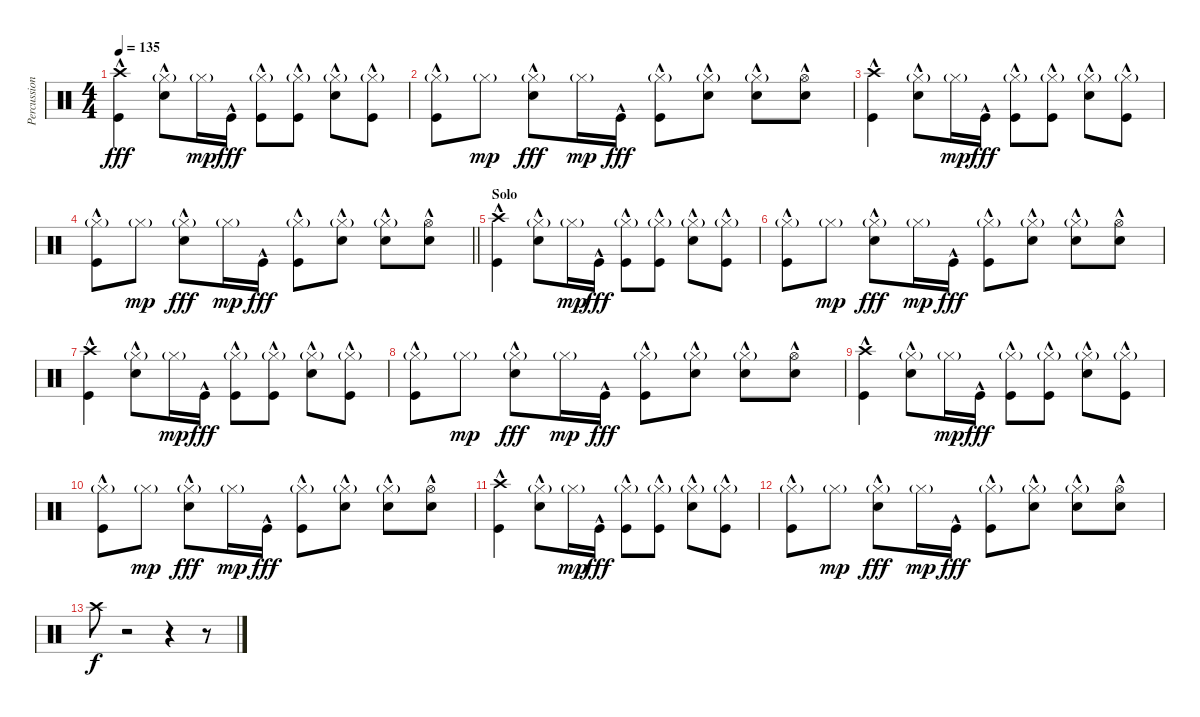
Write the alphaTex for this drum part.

\track ("Percussion" "Percussion") {instrument percussion}
\staff {score}
\articulation defaults
\ts (4 4)
\tempo 135
\clef neutral
\ks c
("Crash high (hit)" "Kick (hit)"{hac}).4{dy fff} ("Hi-Hat (closed)"{g} "Snare (hit) 2"{hac}).8 "Hi-Hat (closed)"{g}.16{dy mp} "Kick (hit)"{hac}.16{dy fff} ("Hi-Hat (closed)"{g} "Kick (hit)"{hac}).8 ("Hi-Hat (closed)"{g} "Kick (hit)"{hac}).8 ("Hi-Hat (closed)"{g} "Snare (hit) 2"{hac}).8 ("Hi-Hat (closed)"{g} "Kick (hit)"{hac}).8 |
("Hi-Hat (closed)"{g} "Kick (hit)"{hac}).8 "Hi-Hat (closed)"{g}.8{dy mp} ("Hi-Hat (closed)"{g} "Snare (hit) 2"{hac}).8{dy fff} "Hi-Hat (closed)"{g}.16{dy mp} "Kick (hit)"{hac}.16{dy fff} ("Hi-Hat (closed)"{g} "Kick (hit)"{hac}).8 ("Hi-Hat (closed)"{g} "Snare (hit) 2"{hac}).8 ("Hi-Hat (closed)"{g} "Snare (hit) 2"{hac}).8 ("Hi-Hat (open)" "Snare (hit) 2"{hac}).8 |
("Crash high (hit)" "Kick (hit)"{hac}).4 ("Hi-Hat (closed)"{g} "Snare (hit) 2"{hac}).8 "Hi-Hat (closed)"{g}.16{dy mp} "Kick (hit)"{hac}.16{dy fff} ("Hi-Hat (closed)"{g} "Kick (hit)"{hac}).8 ("Hi-Hat (closed)"{g} "Kick (hit)"{hac}).8 ("Hi-Hat (closed)"{g} "Snare (hit) 2"{hac}).8 ("Hi-Hat (closed)"{g} "Kick (hit)"{hac}).8 |
\barLineRight lightlight
("Hi-Hat (closed)"{g} "Kick (hit)"{hac}).8 "Hi-Hat (closed)"{g}.8{dy mp} ("Hi-Hat (closed)"{g} "Snare (hit) 2"{hac}).8{dy fff} "Hi-Hat (closed)"{g}.16{dy mp} "Kick (hit)"{hac}.16{dy fff} ("Hi-Hat (closed)"{g} "Kick (hit)"{hac}).8 ("Hi-Hat (closed)"{g} "Snare (hit) 2"{hac}).8 ("Hi-Hat (closed)"{g} "Snare (hit) 2"{hac}).8 ("Hi-Hat (open)" "Snare (hit) 2"{hac}).8 |
\section ("" "Solo")
("Crash high (hit)" "Kick (hit)"{hac}).4 ("Hi-Hat (closed)"{g} "Snare (hit) 2"{hac}).8 "Hi-Hat (closed)"{g}.16{dy mp} "Kick (hit)"{hac}.16{dy fff} ("Hi-Hat (closed)"{g} "Kick (hit)"{hac}).8 ("Hi-Hat (closed)"{g} "Kick (hit)"{hac}).8 ("Hi-Hat (closed)"{g} "Snare (hit) 2"{hac}).8 ("Hi-Hat (closed)"{g} "Kick (hit)"{hac}).8 |
("Hi-Hat (closed)"{g} "Kick (hit)"{hac}).8 "Hi-Hat (closed)"{g}.8{dy mp} ("Hi-Hat (closed)"{g} "Snare (hit) 2"{hac}).8{dy fff} "Hi-Hat (closed)"{g}.16{dy mp} "Kick (hit)"{hac}.16{dy fff} ("Hi-Hat (closed)"{g} "Kick (hit)"{hac}).8 ("Hi-Hat (closed)"{g} "Snare (hit) 2"{hac}).8 ("Hi-Hat (closed)"{g} "Snare (hit) 2"{hac}).8 ("Hi-Hat (open)" "Snare (hit) 2"{hac}).8 |
("Crash high (hit)" "Kick (hit)"{hac}).4 ("Hi-Hat (closed)"{g} "Snare (hit) 2"{hac}).8 "Hi-Hat (closed)"{g}.16{dy mp} "Kick (hit)"{hac}.16{dy fff} ("Hi-Hat (closed)"{g} "Kick (hit)"{hac}).8 ("Hi-Hat (closed)"{g} "Kick (hit)"{hac}).8 ("Hi-Hat (closed)"{g} "Snare (hit) 2"{hac}).8 ("Hi-Hat (closed)"{g} "Kick (hit)"{hac}).8 |
("Hi-Hat (closed)"{g} "Kick (hit)"{hac}).8 "Hi-Hat (closed)"{g}.8{dy mp} ("Hi-Hat (closed)"{g} "Snare (hit) 2"{hac}).8{dy fff} "Hi-Hat (closed)"{g}.16{dy mp} "Kick (hit)"{hac}.16{dy fff} ("Hi-Hat (closed)"{g} "Kick (hit)"{hac}).8 ("Hi-Hat (closed)"{g} "Snare (hit) 2"{hac}).8 ("Hi-Hat (closed)"{g} "Snare (hit) 2"{hac}).8 ("Hi-Hat (open)" "Snare (hit) 2"{hac}).8 |
("Crash high (hit)" "Kick (hit)"{hac}).4 ("Hi-Hat (closed)"{g} "Snare (hit) 2"{hac}).8 "Hi-Hat (closed)"{g}.16{dy mp} "Kick (hit)"{hac}.16{dy fff} ("Hi-Hat (closed)"{g} "Kick (hit)"{hac}).8 ("Hi-Hat (closed)"{g} "Kick (hit)"{hac}).8 ("Hi-Hat (closed)"{g} "Snare (hit) 2"{hac}).8 ("Hi-Hat (closed)"{g} "Kick (hit)"{hac}).8 |
("Hi-Hat (closed)"{g} "Kick (hit)"{hac}).8 "Hi-Hat (closed)"{g}.8{dy mp} ("Hi-Hat (closed)"{g} "Snare (hit) 2"{hac}).8{dy fff} "Hi-Hat (closed)"{g}.16{dy mp} "Kick (hit)"{hac}.16{dy fff} ("Hi-Hat (closed)"{g} "Kick (hit)"{hac}).8 ("Hi-Hat (closed)"{g} "Snare (hit) 2"{hac}).8 ("Hi-Hat (closed)"{g} "Snare (hit) 2"{hac}).8 ("Hi-Hat (open)" "Snare (hit) 2"{hac}).8 |
("Crash high (hit)" "Kick (hit)"{hac}).4 ("Hi-Hat (closed)"{g} "Snare (hit) 2"{hac}).8 "Hi-Hat (closed)"{g}.16{dy mp} "Kick (hit)"{hac}.16{dy fff} ("Hi-Hat (closed)"{g} "Kick (hit)"{hac}).8 ("Hi-Hat (closed)"{g} "Kick (hit)"{hac}).8 ("Hi-Hat (closed)"{g} "Snare (hit) 2"{hac}).8 ("Hi-Hat (closed)"{g} "Kick (hit)"{hac}).8 |
("Hi-Hat (closed)"{g} "Kick (hit)"{hac}).8 "Hi-Hat (closed)"{g}.8{dy mp} ("Hi-Hat (closed)"{g} "Snare (hit) 2"{hac}).8{dy fff} "Hi-Hat (closed)"{g}.16{dy mp} "Kick (hit)"{hac}.16{dy fff} ("Hi-Hat (closed)"{g} "Kick (hit)"{hac}).8 ("Hi-Hat (closed)"{g} "Snare (hit) 2"{hac}).8 ("Hi-Hat (closed)"{g} "Snare (hit) 2"{hac}).8 ("Hi-Hat (open)" "Snare (hit) 2"{hac}).8 |
"Crash high (hit)".8{dy f} r.2 r.4 r.8
